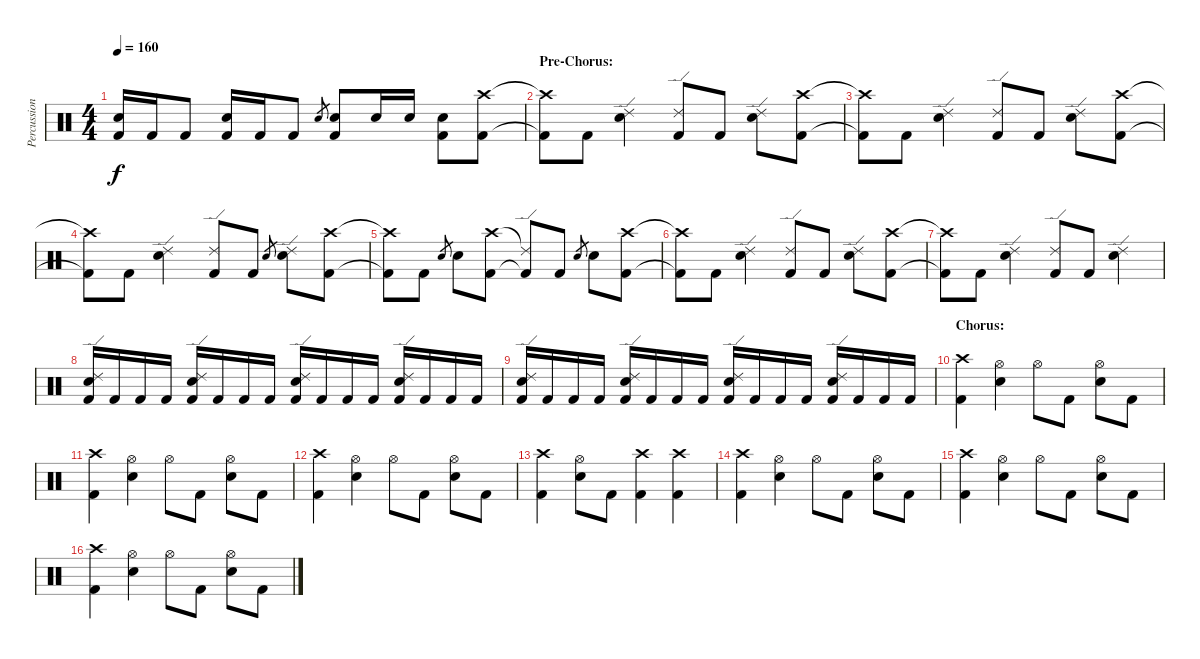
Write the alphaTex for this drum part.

\track ("Percussion" "Percussion") {instrument percussion}
\staff {score}
\articulation defaults
\ts (4 4)
\tempo 160
\clef neutral
\ks c
("Snare (hit) 2" "Kick (hit) 2").16{dy f} "Kick (hit) 2".16 "Kick (hit) 2".8 ("Snare (hit) 2" "Kick (hit) 2").16 "Kick (hit) 2".16 "Kick (hit) 2".8 "Snare (hit) 2".8{gr} ("Snare (hit) 2" "Kick (hit) 2").8 "Snare (hit) 2".16 "Snare (hit) 2".16 ("Snare (hit) 2" "Kick (hit) 2").8 ("Crash high (hit)" "Kick (hit) 2").8 |
\section ("" "Pre-Chorus:")
("Crash high (hit)"{t} "Kick (hit) 2"{t}).8 "Kick (hit) 2".8 ("Ride (edge) 2" "Snare (hit) 2").4 ("Ride (edge) 2" "Kick (hit) 2").8 "Kick (hit) 2".8 ("Ride (edge) 2" "Snare (hit) 2").8 ("Crash high (hit)" "Kick (hit) 2").8 |
("Crash high (hit)"{t} "Kick (hit) 2"{t}).8 "Kick (hit) 2".8 ("Ride (edge) 2" "Snare (hit) 2").4 ("Ride (edge) 2" "Kick (hit) 2").8 "Kick (hit) 2".8 ("Ride (edge) 2" "Snare (hit) 2").8 ("Crash high (hit)" "Kick (hit) 2").8 |
("Crash high (hit)"{t} "Kick (hit) 2"{t}).8 "Kick (hit) 2".8 ("Ride (edge) 2" "Snare (hit) 2").4 ("Ride (edge) 2" "Kick (hit) 2").8 "Kick (hit) 2".8 "Snare (hit) 2".8{gr} ("Ride (edge) 2" "Snare (hit) 2").8 ("Crash high (hit)" "Kick (hit) 2").8 |
("Crash high (hit)"{t} "Kick (hit) 2"{t}).8 "Kick (hit) 2".8 "Snare (hit) 2".8{gr} "Snare (hit) 2".8 ("Crash high (hit)" "Kick (hit) 2").8 ("Ride (edge) 2"{t} "Kick (hit) 2"{t}).8 "Kick (hit) 2".8 "Snare (hit) 2".8{gr} "Snare (hit) 2".8 ("Crash high (hit)" "Kick (hit) 2").8 |
("Crash high (hit)"{t} "Kick (hit) 2"{t}).8 "Kick (hit) 2".8 ("Ride (edge) 2" "Snare (hit) 2").4 ("Ride (edge) 2" "Kick (hit) 2").8 "Kick (hit) 2".8 ("Ride (edge) 2" "Snare (hit) 2").8 ("Crash high (hit)" "Kick (hit) 2").8 |
("Crash high (hit)"{t} "Kick (hit) 2"{t}).8 "Kick (hit) 2".8 ("Ride (edge) 2" "Snare (hit) 2").4 ("Ride (edge) 2" "Kick (hit) 2").8 "Kick (hit) 2".8 ("Ride (edge) 2" "Snare (hit) 2").4 |
("Ride (edge) 2" "Snare (hit) 2" "Kick (hit) 2").16 "Kick (hit) 2".16 "Kick (hit) 2".16 "Kick (hit) 2".16 ("Ride (edge) 2" "Snare (hit) 2" "Kick (hit) 2").16 "Kick (hit) 2".16 "Kick (hit) 2".16 "Kick (hit) 2".16 ("Ride (edge) 2" "Snare (hit) 2" "Kick (hit) 2").16 "Kick (hit) 2".16 "Kick (hit) 2".16 "Kick (hit) 2".16 ("Ride (edge) 2" "Snare (hit) 2" "Kick (hit) 2").16 "Kick (hit) 2".16 "Kick (hit) 2".16 "Kick (hit) 2".16 |
("Ride (edge) 2" "Snare (hit) 2" "Kick (hit) 2").16 "Kick (hit) 2".16 "Kick (hit) 2".16 "Kick (hit) 2".16 ("Ride (edge) 2" "Snare (hit) 2" "Kick (hit) 2").16 "Kick (hit) 2".16 "Kick (hit) 2".16 "Kick (hit) 2".16 ("Ride (edge) 2" "Snare (hit) 2" "Kick (hit) 2").16 "Kick (hit) 2".16 "Kick (hit) 2".16 "Kick (hit) 2".16 ("Ride (edge) 2" "Snare (hit) 2" "Kick (hit) 2").16 "Kick (hit) 2".16 "Kick (hit) 2".16 "Kick (hit) 2".16 |
\section ("" "Chorus:")
("Crash high (hit)" "Kick (hit) 2").4 ("Hi-Hat (open)" "Snare (hit) 2").4 "Hi-Hat (open)".8 "Kick (hit) 2".8 ("Hi-Hat (open)" "Snare (hit) 2").8 "Kick (hit) 2".8 |
("Crash high (hit)" "Kick (hit) 2").4 ("Hi-Hat (open)" "Snare (hit) 2").4 "Hi-Hat (open)".8 "Kick (hit) 2".8 ("Hi-Hat (open)" "Snare (hit) 2").8 "Kick (hit) 2".8 |
("Crash high (hit)" "Kick (hit) 2").4 ("Hi-Hat (open)" "Snare (hit) 2").4 "Hi-Hat (open)".8 "Kick (hit) 2".8 ("Hi-Hat (open)" "Snare (hit) 2").8 "Kick (hit) 2".8 |
("Crash high (hit)" "Kick (hit) 2").4 ("Hi-Hat (open)" "Snare (hit) 2").8 "Kick (hit) 2".8 ("Crash high (hit)" "Kick (hit) 2").4 ("Crash high (hit)" "Kick (hit) 2").4 |
("Crash high (hit)" "Kick (hit) 2").4 ("Hi-Hat (open)" "Snare (hit) 2").4 "Hi-Hat (open)".8 "Kick (hit) 2".8 ("Hi-Hat (open)" "Snare (hit) 2").8 "Kick (hit) 2".8 |
("Crash high (hit)" "Kick (hit) 2").4 ("Hi-Hat (open)" "Snare (hit) 2").4 "Hi-Hat (open)".8 "Kick (hit) 2".8 ("Hi-Hat (open)" "Snare (hit) 2").8 "Kick (hit) 2".8 |
("Crash high (hit)" "Kick (hit) 2").4 ("Hi-Hat (open)" "Snare (hit) 2").4 "Hi-Hat (open)".8 "Kick (hit) 2".8 ("Hi-Hat (open)" "Snare (hit) 2").8 "Kick (hit) 2".8
